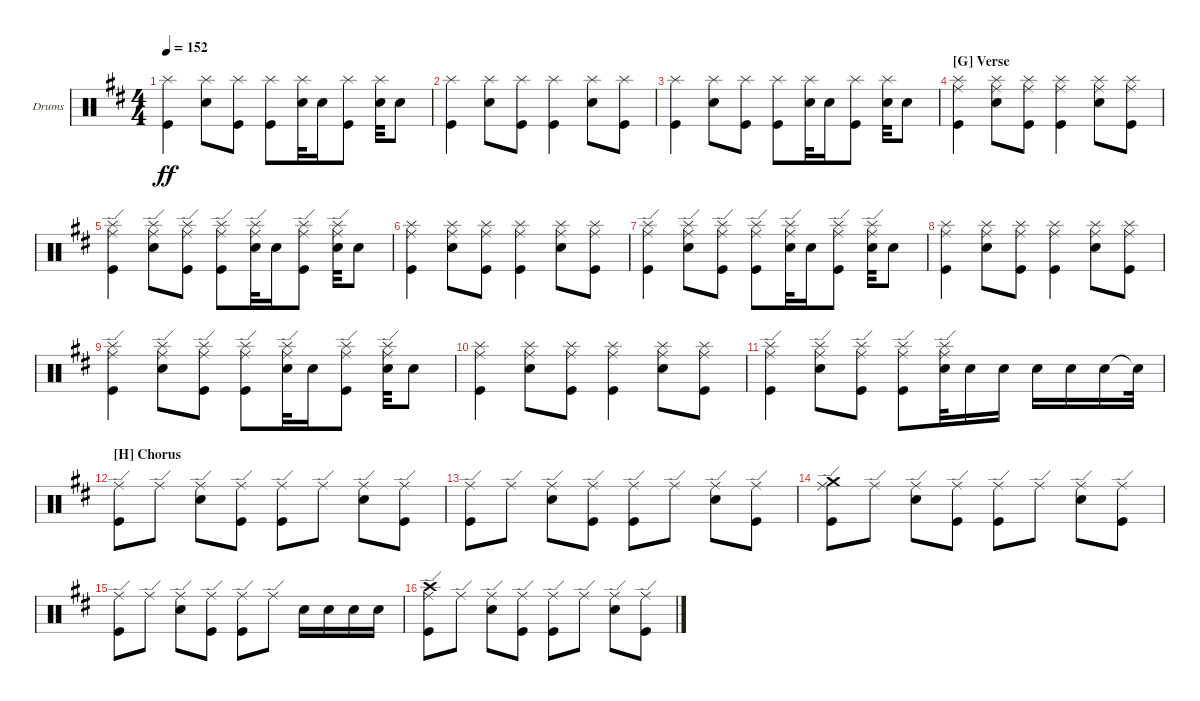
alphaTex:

\defaultSystemsLayout 4
\bracketExtendMode groupsimilarinstruments
\firstSystemTrackNameOrientation horizontal
\otherSystemsTrackNameOrientation horizontal
\track ("Drumkit" "Drums") {instrument percussion}
\staff {score}
\articulation defaults
\ts (4 4)
\tempo 152
\clef neutral
\ks d
("Kick (hit)" "Splash (hit)").4{dy ff} ("Snare (hit) 2" "Splash (hit)").8 ("Kick (hit)" "Splash (hit)").8 ("Kick (hit)" "Splash (hit)").8 ("Snare (hit) 2" "Splash (hit)").32 "Snare (hit) 2".16 ("Kick (hit)" "Splash (hit)").8 ("Snare (hit) 2" "Splash (hit)").32 "Snare (hit) 2".8 |
("Kick (hit)" "Splash (hit)").4 ("Snare (hit) 2" "Splash (hit)").8 ("Kick (hit)" "Splash (hit)").8 ("Kick (hit)" "Splash (hit)").4 ("Snare (hit) 2" "Splash (hit)").8 ("Kick (hit)" "Splash (hit)").8 |
("Kick (hit)" "Splash (hit)").4 ("Snare (hit) 2" "Splash (hit)").8 ("Kick (hit)" "Splash (hit)").8 ("Kick (hit)" "Splash (hit)").8 ("Snare (hit) 2" "Splash (hit)").32 "Snare (hit) 2".16 ("Kick (hit)" "Splash (hit)").8 ("Snare (hit) 2" "Splash (hit)").32 "Snare (hit) 2".8 |
\section ("G" "Verse")
("Kick (hit)" "Splash (hit)" "Ride (middle)").4 ("Snare (hit) 2" "Splash (hit)" "Ride (middle)").8 ("Kick (hit)" "Splash (hit)" "Ride (middle)").8 ("Kick (hit)" "Splash (hit)" "Ride (middle)").4 ("Snare (hit) 2" "Splash (hit)" "Ride (middle)").8 ("Kick (hit)" "Splash (hit)" "Ride (middle)").8 |
("Kick (hit)" "Splash (hit)" "Ride (edge)").4 ("Snare (hit) 2" "Splash (hit)" "Ride (edge)").8 ("Kick (hit)" "Splash (hit)" "Ride (edge)").8 ("Kick (hit)" "Splash (hit)" "Ride (edge)").8 ("Snare (hit) 2" "Splash (hit)" "Ride (edge)").32 "Snare (hit) 2".16 ("Kick (hit)" "Splash (hit)" "Ride (edge)").8 ("Snare (hit) 2" "Splash (hit)" "Ride (edge)").32 "Snare (hit) 2".8 |
("Kick (hit)" "Splash (hit)" "Ride (middle)").4 ("Snare (hit) 2" "Splash (hit)" "Ride (middle)").8 ("Kick (hit)" "Splash (hit)" "Ride (middle)").8 ("Kick (hit)" "Splash (hit)" "Ride (middle)").4 ("Snare (hit) 2" "Splash (hit)" "Ride (middle)").8 ("Kick (hit)" "Splash (hit)" "Ride (middle)").8 |
("Kick (hit)" "Splash (hit)" "Ride (edge)").4 ("Snare (hit) 2" "Splash (hit)" "Ride (edge)").8 ("Kick (hit)" "Splash (hit)" "Ride (edge)").8 ("Kick (hit)" "Splash (hit)" "Ride (edge)").8 ("Snare (hit) 2" "Splash (hit)" "Ride (edge)").32 "Snare (hit) 2".16 ("Kick (hit)" "Splash (hit)" "Ride (edge)").8 ("Snare (hit) 2" "Splash (hit)" "Ride (edge)").32 "Snare (hit) 2".8 |
("Kick (hit)" "Splash (hit)" "Ride (middle)").4 ("Snare (hit) 2" "Splash (hit)" "Ride (middle)").8 ("Kick (hit)" "Splash (hit)" "Ride (middle)").8 ("Kick (hit)" "Splash (hit)" "Ride (middle)").4 ("Snare (hit) 2" "Splash (hit)" "Ride (middle)").8 ("Kick (hit)" "Splash (hit)" "Ride (middle)").8 |
("Kick (hit)" "Splash (hit)" "Ride (edge)").4 ("Snare (hit) 2" "Splash (hit)" "Ride (edge)").8 ("Kick (hit)" "Splash (hit)" "Ride (edge)").8 ("Kick (hit)" "Splash (hit)" "Ride (edge)").8 ("Snare (hit) 2" "Splash (hit)" "Ride (edge)").32 "Snare (hit) 2".16 ("Kick (hit)" "Splash (hit)" "Ride (edge)").8 ("Snare (hit) 2" "Splash (hit)" "Ride (edge)").32 "Snare (hit) 2".8 |
("Kick (hit)" "Splash (hit)" "Ride (middle)").4 ("Snare (hit) 2" "Splash (hit)" "Ride (middle)").8 ("Kick (hit)" "Splash (hit)" "Ride (middle)").8 ("Kick (hit)" "Splash (hit)" "Ride (middle)").4 ("Snare (hit) 2" "Splash (hit)" "Ride (middle)").8 ("Kick (hit)" "Splash (hit)" "Ride (middle)").8 |
("Kick (hit)" "Splash (hit)" "Ride (edge)").4 ("Snare (hit) 2" "Splash (hit)" "Ride (edge)").8 ("Kick (hit)" "Splash (hit)" "Ride (edge)").8 ("Kick (hit)" "Splash (hit)" "Ride (edge)").8 ("Snare (hit) 2" "Splash (hit)" "Ride (edge)").32 "Snare (hit) 2".16 "Snare (hit) 2".16 "Snare (hit) 2".16 "Snare (hit) 2".16 "Snare (hit) 2".16 "Snare (hit) 2"{t}.32 |
\section ("H" "Chorus")
("Kick (hit)" "Ride (edge)").8 "Ride (edge)".8 ("Snare (hit) 2" "Ride (edge)").8 ("Kick (hit)" "Ride (edge)").8 ("Kick (hit)" "Ride (edge)").8 "Ride (edge)".8 ("Snare (hit) 2" "Ride (edge)").8 ("Kick (hit)" "Ride (edge)").8 |
("Kick (hit)" "Ride (edge)").8 "Ride (edge)".8 ("Snare (hit) 2" "Ride (edge)").8 ("Kick (hit)" "Ride (edge)").8 ("Kick (hit)" "Ride (edge)").8 "Ride (edge)".8 ("Snare (hit) 2" "Ride (edge)").8 ("Kick (hit)" "Ride (edge)").8 |
("Kick (hit)" "Ride (edge)" "Crash medium (hit)").8 "Ride (edge)".8 ("Snare (hit) 2" "Ride (edge)").8 ("Kick (hit)" "Ride (edge)").8 ("Kick (hit)" "Ride (edge)").8 "Ride (edge)".8 ("Snare (hit) 2" "Ride (edge)").8 ("Kick (hit)" "Ride (edge)").8 |
("Kick (hit)" "Ride (edge)").8 "Ride (edge)".8 ("Snare (hit) 2" "Ride (edge)").8 ("Kick (hit)" "Ride (edge)").8 ("Kick (hit)" "Ride (edge)").8 "Ride (edge)".8 "Snare (hit) 2".16 "Snare (hit) 2".16 "Snare (hit) 2".16 "Snare (hit) 2".16 |
("Kick (hit)" "Ride (edge)" "Crash high (hit)").8 "Ride (edge)".8 ("Snare (hit) 2" "Ride (edge)").8 ("Kick (hit)" "Ride (edge)").8 ("Kick (hit)" "Ride (edge)").8 "Ride (edge)".8 ("Snare (hit) 2" "Ride (edge)").8 ("Kick (hit)" "Ride (edge)").8
